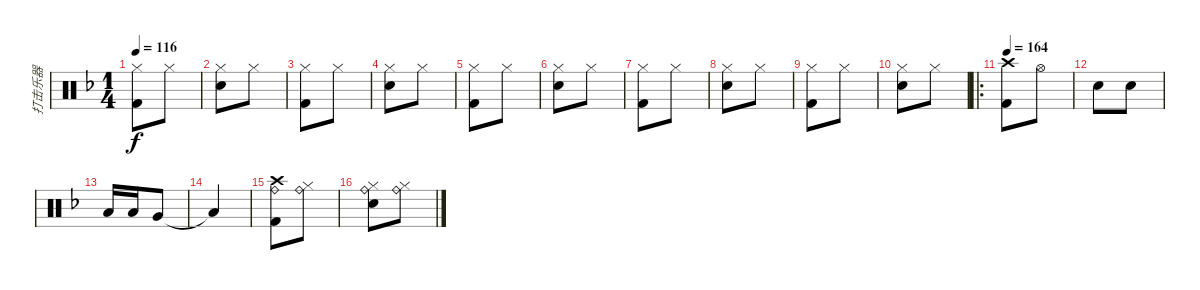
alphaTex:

\track ("打击乐器" "打击乐器") {instrument percussion}
\staff {score}
\articulation defaults
\ts (1 4)
\tempo 116
\clef neutral
\ks f
("Hi-Hat (closed)" "Kick (hit) 2").8{dy f} "Hi-Hat (closed)".8 |
("Hi-Hat (closed)" "Snare (hit) 2").8 "Hi-Hat (closed)".8 |
("Hi-Hat (closed)" "Kick (hit) 2").8 "Hi-Hat (closed)".8 |
("Hi-Hat (closed)" "Snare (hit) 2").8 "Hi-Hat (closed)".8 |
("Hi-Hat (closed)" "Kick (hit) 2").8 "Hi-Hat (closed)".8 |
("Hi-Hat (closed)" "Snare (hit) 2").8 "Hi-Hat (closed)".8 |
("Hi-Hat (closed)" "Kick (hit) 2").8 "Hi-Hat (closed)".8 |
("Hi-Hat (closed)" "Snare (hit) 2").8 "Hi-Hat (closed)".8 |
("Hi-Hat (closed)" "Kick (hit) 2").8 "Hi-Hat (closed)".8 |
("Hi-Hat (closed)" "Snare (hit) 2").8 "Hi-Hat (closed)".8 |
\ro
\tempo 164
("Crash high (hit)" "Kick (hit) 2").8 "Hi-Hat (open)".8 |
"Snare (hit) 2".8 "Snare (hit) 2".8 |
"Low Tom (hit)".16 "Low Tom (hit)".16 "Very Low Tom (hit)".8 |
"Low Tom (hit)"{t}.4 |
("Crash high (hit)" "Ride (bell)" "Kick (hit) 2").8 ("Hi-Hat (closed)" "Ride (bell)").8 |
("Hi-Hat (closed)" "Ride (bell)" "Snare (hit) 2").8 ("Hi-Hat (closed)" "Ride (bell)").8
